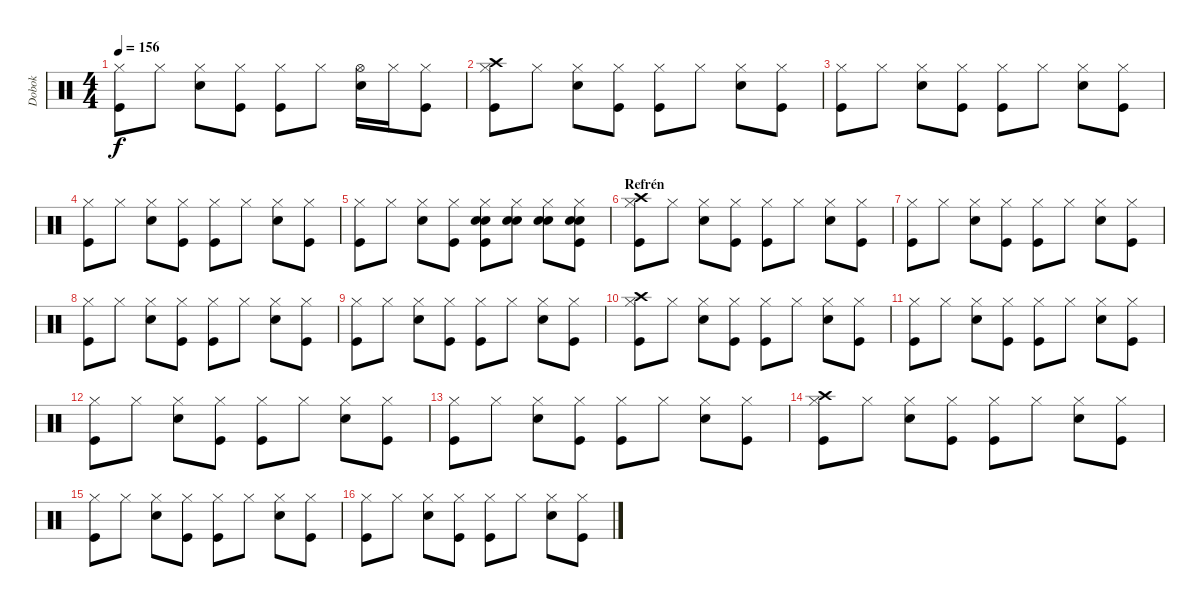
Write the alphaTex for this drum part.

\track ("Dobok" "Dobok") {instrument percussion}
\staff {score}
\articulation defaults
\ts (4 4)
\tempo 156
\clef neutral
\ks c
("Hi-Hat (closed)" "Kick (hit)").8{dy f} "Hi-Hat (closed)".8 ("Hi-Hat (closed)" "Electric Snare (hit)").8 ("Hi-Hat (closed)" "Kick (hit)").8 ("Hi-Hat (closed)" "Kick (hit)").8 "Hi-Hat (closed)".8 ("Hi-Hat (open)" "Electric Snare (hit)").16 "Hi-Hat (closed)".16 ("Hi-Hat (closed)" "Kick (hit)").8 |
("Hi-Hat (closed)" "Crash high (hit)" "Kick (hit)").8 "Hi-Hat (closed)".8 ("Hi-Hat (closed)" "Electric Snare (hit)").8 ("Hi-Hat (closed)" "Kick (hit)").8 ("Hi-Hat (closed)" "Kick (hit)").8 "Hi-Hat (closed)".8 ("Hi-Hat (closed)" "Electric Snare (hit)").8 ("Hi-Hat (closed)" "Kick (hit)").8 |
("Hi-Hat (closed)" "Kick (hit)").8 "Hi-Hat (closed)".8 ("Hi-Hat (closed)" "Electric Snare (hit)").8 ("Hi-Hat (closed)" "Kick (hit)").8 ("Hi-Hat (closed)" "Kick (hit)").8 "Hi-Hat (closed)".8 ("Hi-Hat (closed)" "Electric Snare (hit)").8 ("Hi-Hat (closed)" "Kick (hit)").8 |
("Hi-Hat (closed)" "Kick (hit)").8 "Hi-Hat (closed)".8 ("Hi-Hat (closed)" "Electric Snare (hit)").8 ("Hi-Hat (closed)" "Kick (hit)").8 ("Hi-Hat (closed)" "Kick (hit)").8 "Hi-Hat (closed)".8 ("Hi-Hat (closed)" "Electric Snare (hit)").8 ("Hi-Hat (closed)" "Kick (hit)").8 |
("Hi-Hat (closed)" "Kick (hit)").8 "Hi-Hat (closed)".8 ("Hi-Hat (closed)" "Electric Snare (hit)").8 ("Hi-Hat (closed)" "Kick (hit)").8 ("Hi-Hat (closed)" "Electric Snare (hit)" "Snare (hit) 2" "Kick (hit)").8 ("Hi-Hat (closed)" "Electric Snare (hit)" "Snare (hit) 2").8 ("Hi-Hat (closed)" "Electric Snare (hit)" "Snare (hit) 2").8 ("Hi-Hat (closed)" "Electric Snare (hit)" "Snare (hit) 2" "Kick (hit)").8 |
\section ("" "Refrén")
("Hi-Hat (closed)" "Crash high (hit)" "Kick (hit)").8 "Hi-Hat (closed)".8 ("Hi-Hat (closed)" "Electric Snare (hit)").8 ("Hi-Hat (closed)" "Kick (hit)").8 ("Hi-Hat (closed)" "Kick (hit)").8 "Hi-Hat (closed)".8 ("Hi-Hat (closed)" "Electric Snare (hit)").8 ("Hi-Hat (closed)" "Kick (hit)").8 |
("Hi-Hat (closed)" "Kick (hit)").8 "Hi-Hat (closed)".8 ("Hi-Hat (closed)" "Electric Snare (hit)").8 ("Hi-Hat (closed)" "Kick (hit)").8 ("Hi-Hat (closed)" "Kick (hit)").8 "Hi-Hat (closed)".8 ("Hi-Hat (closed)" "Electric Snare (hit)").8 ("Hi-Hat (closed)" "Kick (hit)").8 |
("Hi-Hat (closed)" "Kick (hit)").8 "Hi-Hat (closed)".8 ("Hi-Hat (closed)" "Electric Snare (hit)").8 ("Hi-Hat (closed)" "Kick (hit)").8 ("Hi-Hat (closed)" "Kick (hit)").8 "Hi-Hat (closed)".8 ("Hi-Hat (closed)" "Electric Snare (hit)").8 ("Hi-Hat (closed)" "Kick (hit)").8 |
("Hi-Hat (closed)" "Kick (hit)").8 "Hi-Hat (closed)".8 ("Hi-Hat (closed)" "Electric Snare (hit)").8 ("Hi-Hat (closed)" "Kick (hit)").8 ("Hi-Hat (closed)" "Kick (hit)").8 "Hi-Hat (closed)".8 ("Hi-Hat (closed)" "Electric Snare (hit)").8 ("Hi-Hat (closed)" "Kick (hit)").8 |
("Hi-Hat (closed)" "Crash high (hit)" "Kick (hit)").8 "Hi-Hat (closed)".8 ("Hi-Hat (closed)" "Electric Snare (hit)").8 ("Hi-Hat (closed)" "Kick (hit)").8 ("Hi-Hat (closed)" "Kick (hit)").8 "Hi-Hat (closed)".8 ("Hi-Hat (closed)" "Electric Snare (hit)").8 ("Hi-Hat (closed)" "Kick (hit)").8 |
("Hi-Hat (closed)" "Kick (hit)").8 "Hi-Hat (closed)".8 ("Hi-Hat (closed)" "Electric Snare (hit)").8 ("Hi-Hat (closed)" "Kick (hit)").8 ("Hi-Hat (closed)" "Kick (hit)").8 "Hi-Hat (closed)".8 ("Hi-Hat (closed)" "Electric Snare (hit)").8 ("Hi-Hat (closed)" "Kick (hit)").8 |
("Hi-Hat (closed)" "Kick (hit)").8 "Hi-Hat (closed)".8 ("Hi-Hat (closed)" "Electric Snare (hit)").8 ("Hi-Hat (closed)" "Kick (hit)").8 ("Hi-Hat (closed)" "Kick (hit)").8 "Hi-Hat (closed)".8 ("Hi-Hat (closed)" "Electric Snare (hit)").8 ("Hi-Hat (closed)" "Kick (hit)").8 |
("Hi-Hat (closed)" "Kick (hit)").8 "Hi-Hat (closed)".8 ("Hi-Hat (closed)" "Electric Snare (hit)").8 ("Hi-Hat (closed)" "Kick (hit)").8 ("Hi-Hat (closed)" "Kick (hit)").8 "Hi-Hat (closed)".8 ("Hi-Hat (closed)" "Electric Snare (hit)").8 ("Hi-Hat (closed)" "Kick (hit)").8 |
("Hi-Hat (closed)" "Crash high (hit)" "Kick (hit)").8 "Hi-Hat (closed)".8 ("Hi-Hat (closed)" "Electric Snare (hit)").8 ("Hi-Hat (closed)" "Kick (hit)").8 ("Hi-Hat (closed)" "Kick (hit)").8 "Hi-Hat (closed)".8 ("Hi-Hat (closed)" "Electric Snare (hit)").8 ("Hi-Hat (closed)" "Kick (hit)").8 |
("Hi-Hat (closed)" "Kick (hit)").8 "Hi-Hat (closed)".8 ("Hi-Hat (closed)" "Electric Snare (hit)").8 ("Hi-Hat (closed)" "Kick (hit)").8 ("Hi-Hat (closed)" "Kick (hit)").8 "Hi-Hat (closed)".8 ("Hi-Hat (closed)" "Electric Snare (hit)").8 ("Hi-Hat (closed)" "Kick (hit)").8 |
("Hi-Hat (closed)" "Kick (hit)").8 "Hi-Hat (closed)".8 ("Hi-Hat (closed)" "Electric Snare (hit)").8 ("Hi-Hat (closed)" "Kick (hit)").8 ("Hi-Hat (closed)" "Kick (hit)").8 "Hi-Hat (closed)".8 ("Hi-Hat (closed)" "Electric Snare (hit)").8 ("Hi-Hat (closed)" "Kick (hit)").8
